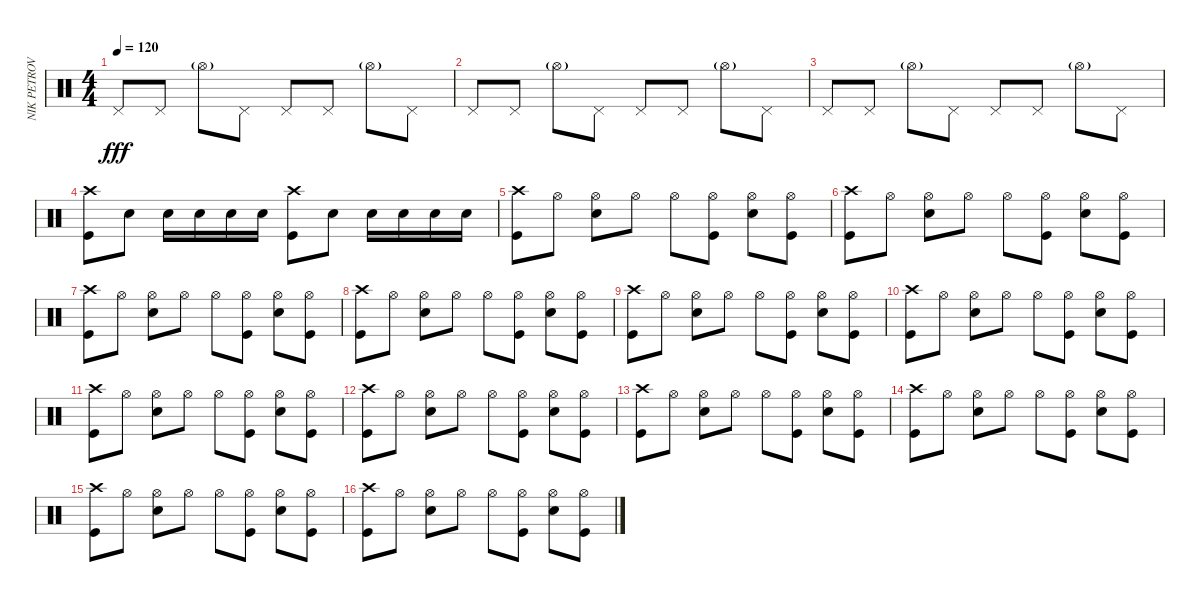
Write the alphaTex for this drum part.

\track ("NIK PETROV" "NIK PETROV") {instrument percussion}
\staff {score}
\articulation defaults
\ts (4 4)
\tempo 120
\clef neutral
\ks c "Pedal Hi-Hat (hit)".8{dy fff} "Pedal Hi-Hat (hit)".8 "Hi-Hat (open)"{g}.8 "Pedal Hi-Hat (hit)".8 "Pedal Hi-Hat (hit)".8 "Pedal Hi-Hat (hit)".8 "Hi-Hat (open)"{g}.8 "Pedal Hi-Hat (hit)".8
|
"Pedal Hi-Hat (hit)".8 "Pedal Hi-Hat (hit)".8 "Hi-Hat (open)"{g}.8 "Pedal Hi-Hat (hit)".8 "Pedal Hi-Hat (hit)".8 "Pedal Hi-Hat (hit)".8 "Hi-Hat (open)"{g}.8 "Pedal Hi-Hat (hit)".8 |
"Pedal Hi-Hat (hit)".8 "Pedal Hi-Hat (hit)".8 "Hi-Hat (open)"{g}.8 "Pedal Hi-Hat (hit)".8 "Pedal Hi-Hat (hit)".8 "Pedal Hi-Hat (hit)".8 "Hi-Hat (open)"{g}.8 "Pedal Hi-Hat (hit)".8 |
("Crash high (hit)" "Kick (hit)").8 "Snare (hit) 2".8 "Snare (hit) 2".16 "Snare (hit) 2".16 "Snare (hit) 2".16 "Snare (hit) 2".16 ("Crash high (hit)" "Kick (hit)").8 "Snare (hit) 2".8 "Snare (hit) 2".16 "Snare (hit) 2".16 "Snare (hit) 2".16 "Snare (hit) 2".16 |
("Crash high (hit)" "Kick (hit)").8 "Hi-Hat (open)".8 ("Hi-Hat (open)" "Snare (hit) 2").8 "Hi-Hat (open)".8 "Hi-Hat (open)".8 ("Hi-Hat (open)" "Kick (hit)").8 ("Hi-Hat (open)" "Snare (hit) 2").8 ("Hi-Hat (open)" "Kick (hit)").8 |
("Crash high (hit)" "Kick (hit)").8 "Hi-Hat (open)".8 ("Hi-Hat (open)" "Snare (hit) 2").8 "Hi-Hat (open)".8 "Hi-Hat (open)".8 ("Hi-Hat (open)" "Kick (hit)").8 ("Hi-Hat (open)" "Snare (hit) 2").8 ("Hi-Hat (open)" "Kick (hit)").8 |
("Crash high (hit)" "Kick (hit)").8 "Hi-Hat (open)".8 ("Hi-Hat (open)" "Snare (hit) 2").8 "Hi-Hat (open)".8 "Hi-Hat (open)".8 ("Hi-Hat (open)" "Kick (hit)").8 ("Hi-Hat (open)" "Snare (hit) 2").8 ("Hi-Hat (open)" "Kick (hit)").8 |
("Crash high (hit)" "Kick (hit)").8 "Hi-Hat (open)".8 ("Hi-Hat (open)" "Snare (hit) 2").8 "Hi-Hat (open)".8 "Hi-Hat (open)".8 ("Hi-Hat (open)" "Kick (hit)").8 ("Hi-Hat (open)" "Snare (hit) 2").8 ("Hi-Hat (open)" "Kick (hit)").8 |
("Crash high (hit)" "Kick (hit)").8 "Hi-Hat (open)".8 ("Hi-Hat (open)" "Snare (hit) 2").8 "Hi-Hat (open)".8 "Hi-Hat (open)".8 ("Hi-Hat (open)" "Kick (hit)").8 ("Hi-Hat (open)" "Snare (hit) 2").8 ("Hi-Hat (open)" "Kick (hit)").8 |
("Crash high (hit)" "Kick (hit)").8 "Hi-Hat (open)".8 ("Hi-Hat (open)" "Snare (hit) 2").8 "Hi-Hat (open)".8 "Hi-Hat (open)".8 ("Hi-Hat (open)" "Kick (hit)").8 ("Hi-Hat (open)" "Snare (hit) 2").8 ("Hi-Hat (open)" "Kick (hit)").8 |
("Crash high (hit)" "Kick (hit)").8 "Hi-Hat (open)".8 ("Hi-Hat (open)" "Snare (hit) 2").8 "Hi-Hat (open)".8 "Hi-Hat (open)".8 ("Hi-Hat (open)" "Kick (hit)").8 ("Hi-Hat (open)" "Snare (hit) 2").8 ("Hi-Hat (open)" "Kick (hit)").8 |
("Crash high (hit)" "Kick (hit)").8 "Hi-Hat (open)".8 ("Hi-Hat (open)" "Snare (hit) 2").8 "Hi-Hat (open)".8 "Hi-Hat (open)".8 ("Hi-Hat (open)" "Kick (hit)").8 ("Hi-Hat (open)" "Snare (hit) 2").8 ("Hi-Hat (open)" "Kick (hit)").8 |
("Crash high (hit)" "Kick (hit)").8 "Hi-Hat (open)".8 ("Hi-Hat (open)" "Snare (hit) 2").8 "Hi-Hat (open)".8 "Hi-Hat (open)".8 ("Hi-Hat (open)" "Kick (hit)").8 ("Hi-Hat (open)" "Snare (hit) 2").8 ("Hi-Hat (open)" "Kick (hit)").8 |
("Crash high (hit)" "Kick (hit)").8 "Hi-Hat (open)".8 ("Hi-Hat (open)" "Snare (hit) 2").8 "Hi-Hat (open)".8 "Hi-Hat (open)".8 ("Hi-Hat (open)" "Kick (hit)").8 ("Hi-Hat (open)" "Snare (hit) 2").8 ("Hi-Hat (open)" "Kick (hit)").8 |
("Crash high (hit)" "Kick (hit)").8 "Hi-Hat (open)".8 ("Hi-Hat (open)" "Snare (hit) 2").8 "Hi-Hat (open)".8 "Hi-Hat (open)".8 ("Hi-Hat (open)" "Kick (hit)").8 ("Hi-Hat (open)" "Snare (hit) 2").8 ("Hi-Hat (open)" "Kick (hit)").8 |
("Crash high (hit)" "Kick (hit)").8 "Hi-Hat (open)".8 ("Hi-Hat (open)" "Snare (hit) 2").8 "Hi-Hat (open)".8 "Hi-Hat (open)".8 ("Hi-Hat (open)" "Kick (hit)").8 ("Hi-Hat (open)" "Snare (hit) 2").8 ("Hi-Hat (open)" "Kick (hit)").8
